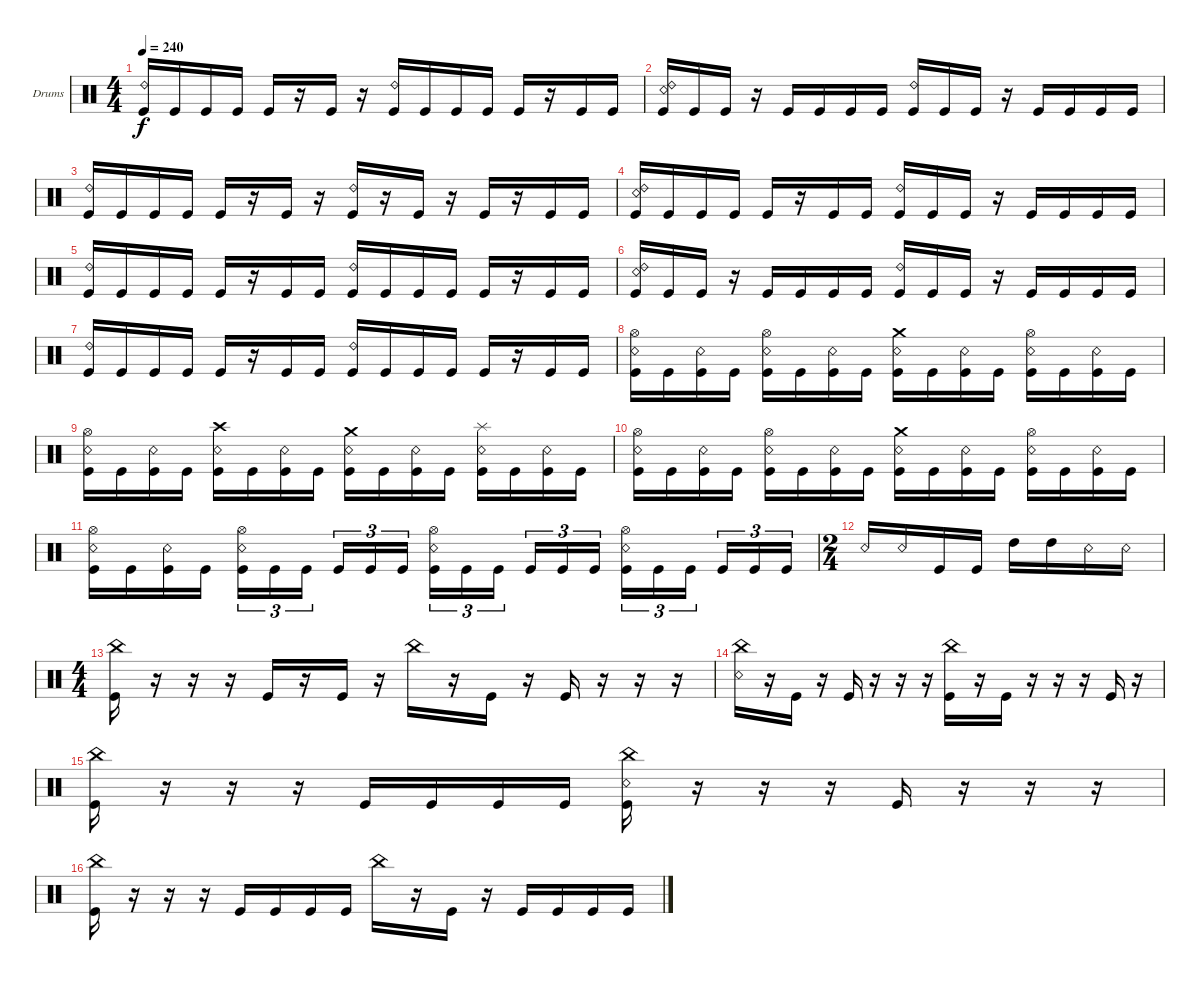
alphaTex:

\bracketExtendMode groupsimilarinstruments
\firstSystemTrackNameOrientation horizontal
\otherSystemsTrackNameOrientation horizontal
\track ("Drumkit" "Drums") {instrument percussion}
\staff {score}
\articulation defaults
\ts (4 4)
\tempo 240
\clef neutral
\ks c
("Kick (hit)" "Ride (bell) 2").16{dy f} "Kick (hit)".16 "Kick (hit)".16 "Kick (hit)".16 "Kick (hit)".16 r.16 "Kick (hit)".16 r.16 ("Kick (hit)" "Ride (bell) 2").16 "Kick (hit)".16 "Kick (hit)".16 "Kick (hit)".16 "Kick (hit)".16 r.16 "Kick (hit)".16 "Kick (hit)".16 |
("Kick (hit)" "Ride (bell) 2" "Snare (rim shot)").16 "Kick (hit)".16 "Kick (hit)".16 r.16 "Kick (hit)".16 "Kick (hit)".16 "Kick (hit)".16 "Kick (hit)".16 ("Kick (hit)" "Ride (bell) 2").16 "Kick (hit)".16 "Kick (hit)".16 r.16 "Kick (hit)".16 "Kick (hit)".16 "Kick (hit)".16 "Kick (hit)".16 |
("Kick (hit)" "Ride (bell) 2").16 "Kick (hit)".16 "Kick (hit)".16 "Kick (hit)".16 "Kick (hit)".16 r.16 "Kick (hit)".16 r.16 ("Kick (hit)" "Ride (bell) 2").16 r.16 "Kick (hit)".16 r.16 "Kick (hit)".16 r.16 "Kick (hit)".16 "Kick (hit)".16 |
("Kick (hit)" "Ride (bell) 2" "Snare (rim shot)").16 "Kick (hit)".16 "Kick (hit)".16 "Kick (hit)".16 "Kick (hit)".16 r.16 "Kick (hit)".16 "Kick (hit)".16 ("Kick (hit)" "Ride (bell) 2").16 "Kick (hit)".16 "Kick (hit)".16 r.16 "Kick (hit)".16 "Kick (hit)".16 "Kick (hit)".16 "Kick (hit)".16 |
("Kick (hit)" "Ride (bell) 2").16 "Kick (hit)".16 "Kick (hit)".16 "Kick (hit)".16 "Kick (hit)".16 r.16 "Kick (hit)".16 "Kick (hit)".16 ("Kick (hit)" "Ride (bell) 2").16 "Kick (hit)".16 "Kick (hit)".16 "Kick (hit)".16 "Kick (hit)".16 r.16 "Kick (hit)".16 "Kick (hit)".16 |
("Kick (hit)" "Ride (bell) 2" "Snare (rim shot)").16 "Kick (hit)".16 "Kick (hit)".16 r.16 "Kick (hit)".16 "Kick (hit)".16 "Kick (hit)".16 "Kick (hit)".16 ("Kick (hit)" "Ride (bell) 2").16 "Kick (hit)".16 "Kick (hit)".16 r.16 "Kick (hit)".16 "Kick (hit)".16 "Kick (hit)".16 "Kick (hit)".16 |
("Kick (hit)" "Ride (bell) 2").16 "Kick (hit)".16 "Kick (hit)".16 "Kick (hit)".16 "Kick (hit)".16 r.16 "Kick (hit)".16 "Kick (hit)".16 ("Kick (hit)" "Ride (bell) 2").16 "Kick (hit)".16 "Kick (hit)".16 "Kick (hit)".16 "Kick (hit)".16 r.16 "Kick (hit)".16 "Kick (hit)".16 |
("Snare (rim shot)" "Hi-Hat (open)" "Kick (hit)").16 "Kick (hit)".16 ("Snare (rim shot)" "Kick (hit)").16 "Kick (hit)".16 ("Snare (rim shot)" "Hi-Hat (open)" "Kick (hit)").16 "Kick (hit)".16 ("Snare (rim shot)" "Kick (hit)").16 "Kick (hit)".16 ("Snare (rim shot)" "Crash medium (hit)" "Kick (hit)").16 "Kick (hit)".16 ("Snare (rim shot)" "Kick (hit)").16 "Kick (hit)".16 ("Snare (rim shot)" "Hi-Hat (open)" "Kick (hit)").16 "Kick (hit)".16 ("Snare (rim shot)" "Kick (hit)").16 "Kick (hit)".16 |
("Snare (rim shot)" "Hi-Hat (open)" "Kick (hit)").16 "Kick (hit)".16 ("Snare (rim shot)" "Kick (hit)").16 "Kick (hit)".16 ("Snare (rim shot)" "Kick (hit)" "Crash high (hit)").16 "Kick (hit)".16 ("Snare (rim shot)" "Kick (hit)").16 "Kick (hit)".16 ("Snare (rim shot)" "Crash medium (hit)" "Kick (hit)").16 "Kick (hit)".16 ("Snare (rim shot)" "Kick (hit)").16 "Kick (hit)".16 ("Snare (rim shot)" "Kick (hit)" "Splash (hit)").16 "Kick (hit)".16 ("Snare (rim shot)" "Kick (hit)").16 "Kick (hit)".16 |
("Snare (rim shot)" "Hi-Hat (open)" "Kick (hit)").16 "Kick (hit)".16 ("Snare (rim shot)" "Kick (hit)").16 "Kick (hit)".16 ("Snare (rim shot)" "Hi-Hat (open)" "Kick (hit)").16 "Kick (hit)".16 ("Snare (rim shot)" "Kick (hit)").16 "Kick (hit)".16 ("Snare (rim shot)" "Crash medium (hit)" "Kick (hit)").16 "Kick (hit)".16 ("Snare (rim shot)" "Kick (hit)").16 "Kick (hit)".16 ("Snare (rim shot)" "Hi-Hat (open)" "Kick (hit)").16 "Kick (hit)".16 ("Snare (rim shot)" "Kick (hit)").16 "Kick (hit)".16 |
("Snare (rim shot)" "Hi-Hat (open)" "Kick (hit)").16 "Kick (hit)".16 ("Snare (rim shot)" "Kick (hit)").16 "Kick (hit)".16 ("Kick (hit)" "Hi-Hat (open)" "Snare (rim shot)").16{tu (3 2)} "Kick (hit)".16{tu (3 2)} "Kick (hit)".16{tu (3 2)} "Kick (hit)".16{tu (3 2)} "Kick (hit)".16{tu (3 2)} "Kick (hit)".16{tu (3 2)} ("Kick (hit)" "Hi-Hat (open)" "Snare (rim shot)").16{tu (3 2)} "Kick (hit)".16{tu (3 2)} "Kick (hit)".16{tu (3 2)} "Kick (hit)".16{tu (3 2)} "Kick (hit)".16{tu (3 2)} "Kick (hit)".16{tu (3 2)} ("Kick (hit)" "Hi-Hat (open)" "Snare (rim shot)").16{tu (3 2)} "Kick (hit)".16{tu (3 2)} "Kick (hit)".16{tu (3 2)} "Kick (hit)".16{tu (3 2)} "Kick (hit)".16{tu (3 2)} "Kick (hit)".16{tu (3 2)} |
\ts (2 4)
"Snare (rim shot)".16 "Snare (rim shot)".16 "Kick (hit)".16 "Kick (hit)".16 "High Tom (hit)".16 "High Tom (hit)".16 "Snare (rim shot)".16 "Snare (rim shot)".16 |
\ts (4 4)
("China (hit)" "Kick (hit)").16 r.16 r.16 r.16 "Kick (hit)".16 r.16 "Kick (hit)".16 r.16 "China (hit)".16 r.16 "Kick (hit)".16 r.16 "Kick (hit)".16 r.16 r.16 r.16 |
("China (hit)" "Snare (rim shot)").16 r.16 "Kick (hit)".16 r.16 "Kick (hit)".16 r.16 r.16 r.16 ("China (hit)" "Kick (hit)").16 r.16 "Kick (hit)".16 r.16 r.16 r.16 "Kick (hit)".16 r.16 |
("China (hit)" "Kick (hit)").16 r.16 r.16 r.16 "Kick (hit)".16 "Kick (hit)".16 "Kick (hit)".16 "Kick (hit)".16 ("China (hit)" "Kick (hit)" "Snare (rim shot)").16 r.16 r.16 r.16 "Kick (hit)".16 r.16 r.16 r.16 |
("China (hit)" "Kick (hit)").16 r.16 r.16 r.16 "Kick (hit)".16 "Kick (hit)".16 "Kick (hit)".16 "Kick (hit)".16 "China (hit)".16 r.16 "Kick (hit)".16 r.16 "Kick (hit)".16 "Kick (hit)".16 "Kick (hit)".16 "Kick (hit)".16
